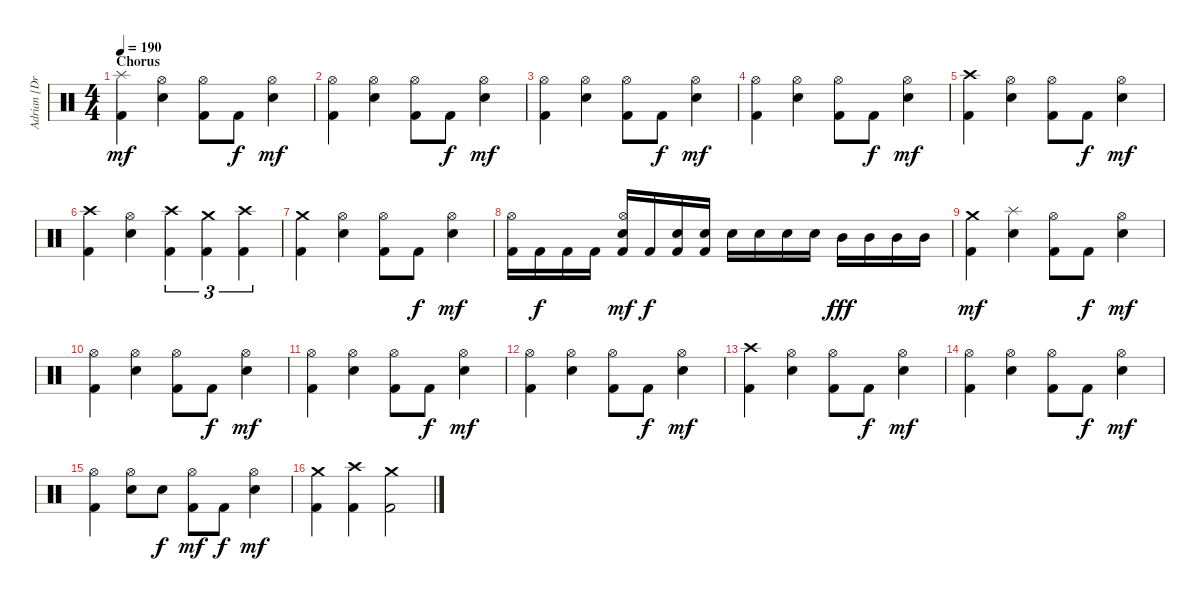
\track ("Adrian [Drums]" "Adrian [Dr") {instrument percussion}
\staff {score}
\articulation defaults
\ts (4 4)
\section ("" "Chorus")
\tempo 190
\clef neutral
\ks c
("Splash (hit)" "Kick (hit) 2").4{dy mf} ("Hi-Hat (open)" "Electric Snare (hit)").4 ("Hi-Hat (open)" "Kick (hit) 2").8 "Kick (hit) 2".8{dy f} ("Hi-Hat (open)" "Electric Snare (hit)").4{dy mf} |
("Hi-Hat (open)" "Kick (hit) 2").4 ("Hi-Hat (open)" "Electric Snare (hit)").4 ("Hi-Hat (open)" "Kick (hit) 2").8 "Kick (hit) 2".8{dy f} ("Hi-Hat (open)" "Electric Snare (hit)").4{dy mf} |
("Hi-Hat (open)" "Kick (hit) 2").4 ("Hi-Hat (open)" "Electric Snare (hit)").4 ("Hi-Hat (open)" "Kick (hit) 2").8 "Kick (hit) 2".8{dy f} ("Hi-Hat (open)" "Electric Snare (hit)").4{dy mf} |
("Hi-Hat (open)" "Kick (hit) 2").4 ("Hi-Hat (open)" "Electric Snare (hit)").4 ("Hi-Hat (open)" "Kick (hit) 2").8 "Kick (hit) 2".8{dy f} ("Hi-Hat (open)" "Electric Snare (hit)").4{dy mf} |
("Crash high (hit)" "Kick (hit) 2").4 ("Hi-Hat (open)" "Electric Snare (hit)").4 ("Hi-Hat (open)" "Kick (hit) 2").8 "Kick (hit) 2".8{dy f} ("Hi-Hat (open)" "Electric Snare (hit)").4{dy mf} |
("Crash high (hit)" "Kick (hit) 2").4 ("Hi-Hat (open)" "Electric Snare (hit)").4 ("Crash high (hit)" "Kick (hit) 2").4{tu (3 2)} ("Crash medium (hit)" "Kick (hit) 2").4{tu (3 2)} ("Crash high (hit)" "Kick (hit) 2").4{tu (3 2)} |
("Crash medium (hit)" "Kick (hit) 2").4 ("Hi-Hat (open)" "Electric Snare (hit)").4 ("Hi-Hat (open)" "Kick (hit) 2").8 "Kick (hit) 2".8{dy f} ("Hi-Hat (open)" "Electric Snare (hit)").4{dy mf} |
("Hi-Hat (open)" "Kick (hit) 2").16 "Kick (hit) 2".16{dy f} "Kick (hit) 2".16 "Kick (hit) 2".16 ("Hi-Hat (open)" "Electric Snare (hit)" "Kick (hit) 2").16{dy mf} "Kick (hit) 2".16{dy f} ("Electric Snare (hit)" "Kick (hit) 2").16 ("Electric Snare (hit)" "Kick (hit) 2").16 "Electric Snare (hit)".16 "Electric Snare (hit)".16 "Electric Snare (hit)".16 "Electric Snare (hit)".16 "Mid Tom (hit)".16{dy fff} "Mid Tom (hit)".16 "Mid Tom (hit)".16 "Mid Tom (hit)".16 |
("Crash medium (hit)" "Kick (hit) 2").4{dy mf} ("Splash (hit)" "Electric Snare (hit)").4 ("Hi-Hat (open)" "Kick (hit) 2").8 "Kick (hit) 2".8{dy f} ("Hi-Hat (open)" "Electric Snare (hit)").4{dy mf} |
("Hi-Hat (open)" "Kick (hit) 2").4 ("Hi-Hat (open)" "Electric Snare (hit)").4 ("Hi-Hat (open)" "Kick (hit) 2").8 "Kick (hit) 2".8{dy f} ("Hi-Hat (open)" "Electric Snare (hit)").4{dy mf} |
("Hi-Hat (open)" "Kick (hit) 2").4 ("Hi-Hat (open)" "Electric Snare (hit)").4 ("Hi-Hat (open)" "Kick (hit) 2").8 "Kick (hit) 2".8{dy f} ("Hi-Hat (open)" "Electric Snare (hit)").4{dy mf} |
("Hi-Hat (open)" "Kick (hit) 2").4 ("Hi-Hat (open)" "Electric Snare (hit)").4 ("Hi-Hat (open)" "Kick (hit) 2").8 "Kick (hit) 2".8{dy f} ("Hi-Hat (open)" "Electric Snare (hit)").4{dy mf} |
("Crash high (hit)" "Kick (hit) 2").4 ("Hi-Hat (open)" "Electric Snare (hit)").4 ("Hi-Hat (open)" "Kick (hit) 2").8 "Kick (hit) 2".8{dy f} ("Hi-Hat (open)" "Electric Snare (hit)").4{dy mf} |
("Hi-Hat (open)" "Kick (hit) 2").4 ("Hi-Hat (open)" "Electric Snare (hit)").4 ("Hi-Hat (open)" "Kick (hit) 2").8 "Kick (hit) 2".8{dy f} ("Hi-Hat (open)" "Electric Snare (hit)").4{dy mf} |
("Hi-Hat (open)" "Kick (hit) 2").4 ("Hi-Hat (open)" "Electric Snare (hit)").8 "Electric Snare (hit)".8{dy f} ("Hi-Hat (open)" "Kick (hit) 2").8{dy mf} "Kick (hit) 2".8{dy f} ("Hi-Hat (open)" "Electric Snare (hit)").4{dy mf} |
("Crash medium (hit)" "Kick (hit) 2").4 ("Crash high (hit)" "Kick (hit) 2").4 ("Crash medium (hit)" "Kick (hit) 2").2
